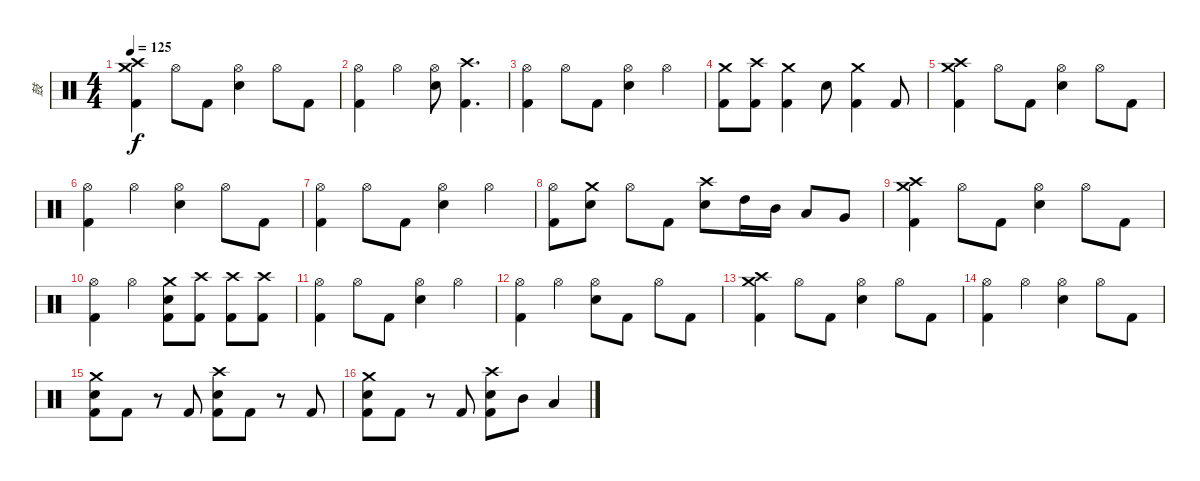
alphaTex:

\track ("鼓" "鼓") {instrument percussion}
\staff {score}
\articulation defaults
\ts (4 4)
\tempo 125
\clef neutral
\ks c
("Crash medium (hit)" "Crash high (hit)" "Kick (hit) 2").4{dy f} "Hi-Hat (open)".8 "Kick (hit) 2".8 ("Hi-Hat (open)" "Snare (hit) 2").4 "Hi-Hat (open)".8 "Kick (hit) 2".8 |
("Hi-Hat (open)" "Kick (hit) 2").4 "Hi-Hat (open)".4 ("Snare (hit) 2" "Hi-Hat (open)").8 ("Crash high (hit)" "Kick (hit) 2").4{d} |
("Hi-Hat (open)" "Kick (hit) 2").4 "Hi-Hat (open)".8 "Kick (hit) 2".8 ("Hi-Hat (open)" "Snare (hit) 2").4 "Hi-Hat (open)".4 |
("Crash medium (hit)" "Kick (hit) 2").8 ("Crash high (hit)" "Kick (hit) 2").8 ("Crash medium (hit)" "Kick (hit) 2").4 "Snare (hit) 2".8 ("Crash medium (hit)" "Kick (hit) 2").4 "Kick (hit) 2".8 |
("Crash medium (hit)" "Crash high (hit)" "Kick (hit) 2").4 "Hi-Hat (open)".8 "Kick (hit) 2".8 ("Hi-Hat (open)" "Snare (hit) 2").4 "Hi-Hat (open)".8 "Kick (hit) 2".8 |
("Hi-Hat (open)" "Kick (hit) 2").4 "Hi-Hat (open)".4 ("Snare (hit) 2" "Hi-Hat (open)").4 "Hi-Hat (open)".8 "Kick (hit) 2".8 |
("Hi-Hat (open)" "Kick (hit) 2").4 "Hi-Hat (open)".8 "Kick (hit) 2".8 ("Hi-Hat (open)" "Snare (hit) 2").4 "Hi-Hat (open)".4 |
("Hi-Hat (open)" "Kick (hit) 2").8 ("Snare (hit) 2" "Crash medium (hit)").8 "Hi-Hat (open)".8 "Kick (hit) 2".8 ("Snare (hit) 2" "Crash high (hit)").8 "High Tom (hit)".16 "Mid Tom (hit)".16 "Low Tom (hit)".8 "Very Low Tom (hit)".8 |
("Crash medium (hit)" "Crash high (hit)" "Kick (hit) 2").4 "Hi-Hat (open)".8 "Kick (hit) 2".8 ("Hi-Hat (open)" "Snare (hit) 2").4 "Hi-Hat (open)".8 "Kick (hit) 2".8 |
("Hi-Hat (open)" "Kick (hit) 2").4 "Hi-Hat (open)".4 ("Snare (hit) 2" "Crash medium (hit)" "Kick (hit) 2").8 ("Crash high (hit)" "Kick (hit) 2").8 ("Crash high (hit)" "Kick (hit) 2").8 ("Crash high (hit)" "Kick (hit) 2").8 |
("Hi-Hat (open)" "Kick (hit) 2").4 "Hi-Hat (open)".8 "Kick (hit) 2".8 ("Hi-Hat (open)" "Snare (hit) 2").4 "Hi-Hat (open)".4 |
("Hi-Hat (open)" "Kick (hit) 2").4 "Hi-Hat (open)".4 ("Snare (hit) 2" "Hi-Hat (open)").8 "Kick (hit) 2".8 "Hi-Hat (open)".8 "Kick (hit) 2".8 |
("Crash medium (hit)" "Crash high (hit)" "Kick (hit) 2").4 "Hi-Hat (open)".8 "Kick (hit) 2".8 ("Hi-Hat (open)" "Snare (hit) 2").4 "Hi-Hat (open)".8 "Kick (hit) 2".8 |
("Hi-Hat (open)" "Kick (hit) 2").4 "Hi-Hat (open)".4 ("Snare (hit) 2" "Hi-Hat (open)").4 "Hi-Hat (open)".8 "Kick (hit) 2".8 |
("Snare (hit) 2" "Crash medium (hit)" "Kick (hit) 2").8 "Kick (hit) 2".8 r.8 "Kick (hit) 2".8 ("Crash high (hit)" "Snare (hit) 2" "Kick (hit) 2").8 "Kick (hit) 2".8 r.8 "Kick (hit) 2".8 |
("Snare (hit) 2" "Crash medium (hit)" "Kick (hit) 2").8 "Kick (hit) 2".8 r.8 "Kick (hit) 2".8 ("Crash high (hit)" "Snare (hit) 2" "Kick (hit) 2").8 "Mid Tom (hit)".8 "Low Tom (hit)".4
